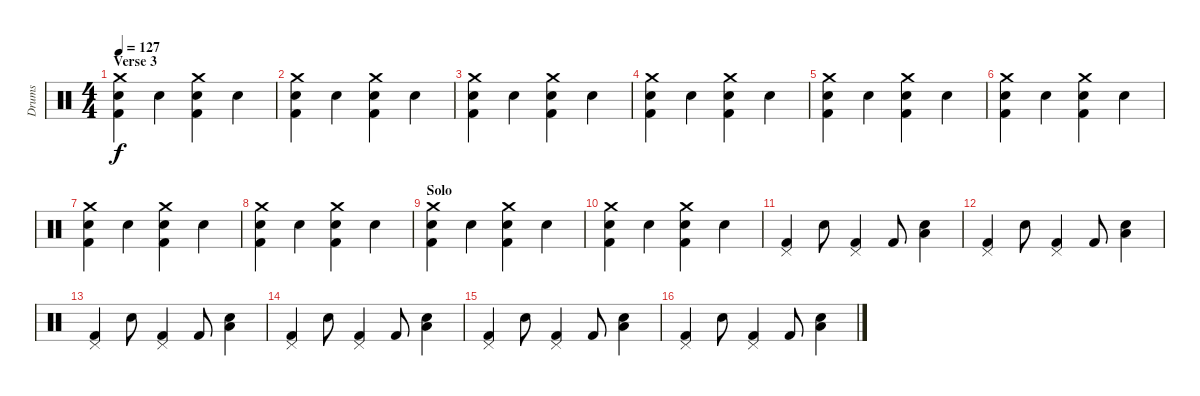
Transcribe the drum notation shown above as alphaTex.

\track ("Drums" "Drums") {instrument percussion}
\staff {score}
\articulation defaults
\ts (4 4)
\section ("" "Verse 3")
\tempo 127
\clef neutral
\ks c
("Crash medium (hit)" "Kick (hit) 2" "Snare (hit) 2").4{dy f} "Snare (hit) 2".4 ("Crash medium (hit)" "Kick (hit) 2" "Snare (hit) 2").4 "Snare (hit) 2".4 |
("Crash medium (hit)" "Kick (hit) 2" "Snare (hit) 2").4 "Snare (hit) 2".4 ("Crash medium (hit)" "Kick (hit) 2" "Snare (hit) 2").4 "Snare (hit) 2".4 |
("Crash medium (hit)" "Kick (hit) 2" "Snare (hit) 2").4 "Snare (hit) 2".4 ("Crash medium (hit)" "Kick (hit) 2" "Snare (hit) 2").4 "Snare (hit) 2".4 |
("Crash medium (hit)" "Kick (hit) 2" "Snare (hit) 2").4 "Snare (hit) 2".4 ("Crash medium (hit)" "Kick (hit) 2" "Snare (hit) 2").4 "Snare (hit) 2".4 |
("Crash medium (hit)" "Kick (hit) 2" "Snare (hit) 2").4 "Snare (hit) 2".4 ("Crash medium (hit)" "Kick (hit) 2" "Snare (hit) 2").4 "Snare (hit) 2".4 |
("Crash medium (hit)" "Kick (hit) 2" "Snare (hit) 2").4 "Snare (hit) 2".4 ("Crash medium (hit)" "Kick (hit) 2" "Snare (hit) 2").4 "Snare (hit) 2".4 |
("Crash medium (hit)" "Kick (hit) 2" "Snare (hit) 2").4 "Snare (hit) 2".4 ("Crash medium (hit)" "Kick (hit) 2" "Snare (hit) 2").4 "Snare (hit) 2".4 |
("Crash medium (hit)" "Kick (hit) 2" "Snare (hit) 2").4 "Snare (hit) 2".4 ("Crash medium (hit)" "Kick (hit) 2" "Snare (hit) 2").4 "Snare (hit) 2".4 |
\section ("" "Solo")
("Crash medium (hit)" "Kick (hit) 2" "Snare (hit) 2").4 "Snare (hit) 2".4 ("Crash medium (hit)" "Kick (hit) 2" "Snare (hit) 2").4 "Snare (hit) 2".4 |
("Crash medium (hit)" "Kick (hit) 2" "Snare (hit) 2").4 "Snare (hit) 2".4 ("Crash medium (hit)" "Kick (hit) 2" "Snare (hit) 2").4 "Snare (hit) 2".4 |
("Pedal Hi-Hat (hit)" "Kick (hit) 2").4 "Snare (hit) 2".8 ("Pedal Hi-Hat (hit)" "Kick (hit) 2").4 "Kick (hit) 2".8 ("Low Floor Tom (hit)" "Snare (hit) 2").4 |
("Pedal Hi-Hat (hit)" "Kick (hit) 2").4 "Snare (hit) 2".8 ("Pedal Hi-Hat (hit)" "Kick (hit) 2").4 "Kick (hit) 2".8 ("Low Floor Tom (hit)" "Snare (hit) 2").4 |
("Pedal Hi-Hat (hit)" "Kick (hit) 2").4 "Snare (hit) 2".8 ("Pedal Hi-Hat (hit)" "Kick (hit) 2").4 "Kick (hit) 2".8 ("Low Floor Tom (hit)" "Snare (hit) 2").4 |
("Pedal Hi-Hat (hit)" "Kick (hit) 2").4 "Snare (hit) 2".8 ("Pedal Hi-Hat (hit)" "Kick (hit) 2").4 "Kick (hit) 2".8 ("Low Floor Tom (hit)" "Snare (hit) 2").4 |
("Pedal Hi-Hat (hit)" "Kick (hit) 2").4 "Snare (hit) 2".8 ("Pedal Hi-Hat (hit)" "Kick (hit) 2").4 "Kick (hit) 2".8 ("Low Floor Tom (hit)" "Snare (hit) 2").4 |
("Pedal Hi-Hat (hit)" "Kick (hit) 2").4 "Snare (hit) 2".8 ("Pedal Hi-Hat (hit)" "Kick (hit) 2").4 "Kick (hit) 2".8 ("Low Floor Tom (hit)" "Snare (hit) 2").4
